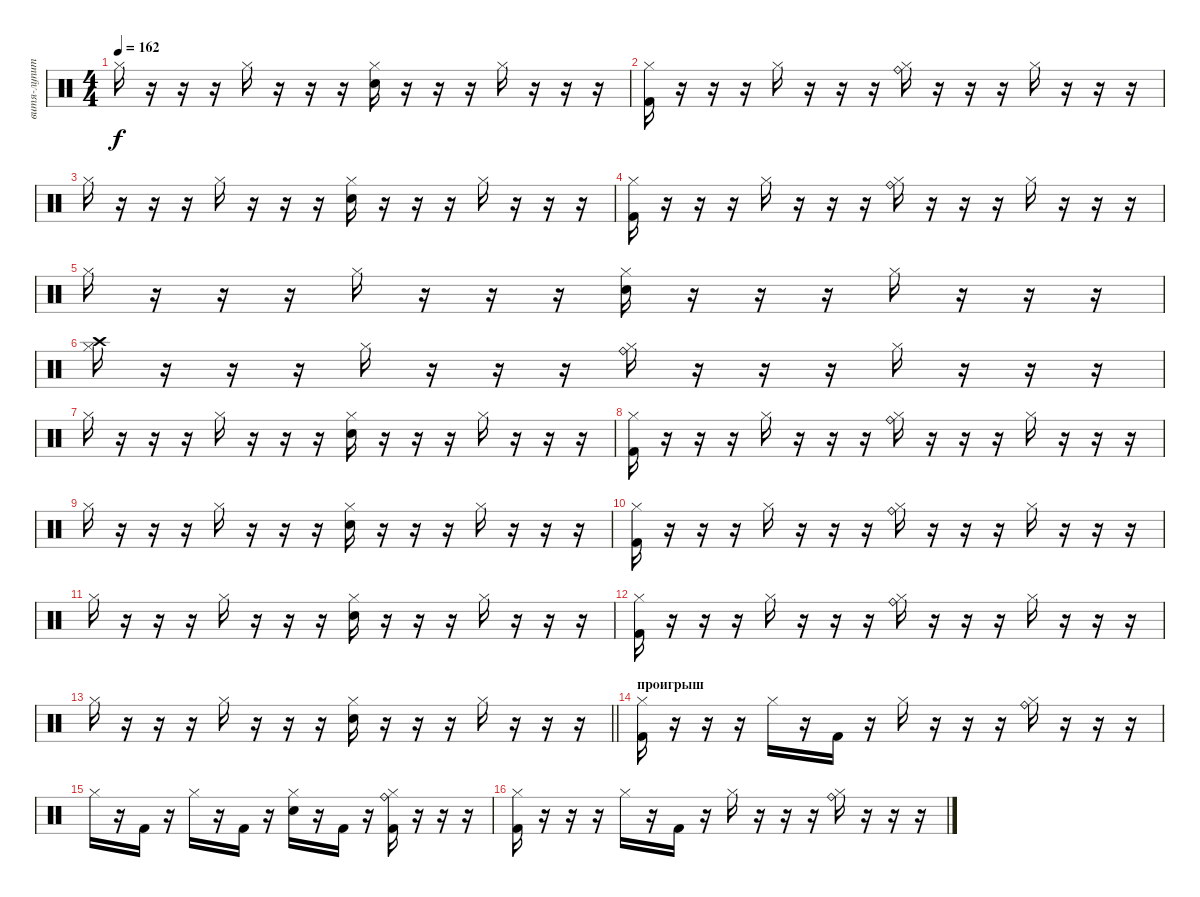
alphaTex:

\track ("витя-лупит" "витя-лупит") {instrument percussion}
\staff {score}
\articulation defaults
\ts (4 4)
\tempo 162
\clef neutral
\ks c "Hi-Hat (closed)".16{dy f}
r.16 r.16 r.16 "Hi-Hat (closed)".16 r.16 r.16 r.16 ("Snare (hit) 2" "Hi-Hat (closed)").16 r.16 r.16 r.16 "Hi-Hat (closed)".16 r.16 r.16 r.16 |
("Kick (hit) 2" "Hi-Hat (closed)").16 r.16 r.16 r.16 "Hi-Hat (closed)".16 r.16 r.16 r.16 ("Ride (bell)" "Hi-Hat (closed)").16 r.16 r.16 r.16 "Hi-Hat (closed)".16 r.16 r.16 r.16 |
"Hi-Hat (closed)".16 r.16 r.16 r.16 "Hi-Hat (closed)".16 r.16 r.16 r.16 ("Snare (hit) 2" "Hi-Hat (closed)").16 r.16 r.16 r.16 "Hi-Hat (closed)".16 r.16 r.16 r.16 |
("Kick (hit) 2" "Hi-Hat (closed)").16 r.16 r.16 r.16 "Hi-Hat (closed)".16 r.16 r.16 r.16 ("Ride (bell)" "Hi-Hat (closed)").16 r.16 r.16 r.16 "Hi-Hat (closed)".16 r.16 r.16 r.16 |
"Hi-Hat (closed)".16 r.16 r.16 r.16 "Hi-Hat (closed)".16 r.16 r.16 r.16 ("Snare (hit) 2" "Hi-Hat (closed)").16 r.16 r.16 r.16 "Hi-Hat (closed)".16 r.16 r.16 r.16 |
("Crash high (hit)" "Hi-Hat (closed)").16 r.16 r.16 r.16 "Hi-Hat (closed)".16 r.16 r.16 r.16 ("Ride (bell)" "Hi-Hat (closed)").16 r.16 r.16 r.16 "Hi-Hat (closed)".16 r.16 r.16 r.16 |
"Hi-Hat (closed)".16 r.16 r.16 r.16 "Hi-Hat (closed)".16 r.16 r.16 r.16 ("Snare (hit) 2" "Hi-Hat (closed)").16 r.16 r.16 r.16 "Hi-Hat (closed)".16 r.16 r.16 r.16 |
("Kick (hit) 2" "Hi-Hat (closed)").16 r.16 r.16 r.16 "Hi-Hat (closed)".16 r.16 r.16 r.16 ("Ride (bell)" "Hi-Hat (closed)").16 r.16 r.16 r.16 "Hi-Hat (closed)".16 r.16 r.16 r.16 |
"Hi-Hat (closed)".16 r.16 r.16 r.16 "Hi-Hat (closed)".16 r.16 r.16 r.16 ("Snare (hit) 2" "Hi-Hat (closed)").16 r.16 r.16 r.16 "Hi-Hat (closed)".16 r.16 r.16 r.16 |
("Kick (hit) 2" "Hi-Hat (closed)").16 r.16 r.16 r.16 "Hi-Hat (closed)".16 r.16 r.16 r.16 ("Ride (bell)" "Hi-Hat (closed)").16 r.16 r.16 r.16 "Hi-Hat (closed)".16 r.16 r.16 r.16 |
"Hi-Hat (closed)".16 r.16 r.16 r.16 "Hi-Hat (closed)".16 r.16 r.16 r.16 ("Snare (hit) 2" "Hi-Hat (closed)").16 r.16 r.16 r.16 "Hi-Hat (closed)".16 r.16 r.16 r.16 |
("Kick (hit) 2" "Hi-Hat (closed)").16 r.16 r.16 r.16 "Hi-Hat (closed)".16 r.16 r.16 r.16 ("Ride (bell)" "Hi-Hat (closed)").16 r.16 r.16 r.16 "Hi-Hat (closed)".16 r.16 r.16 r.16 |
\barLineRight lightlight "Hi-Hat (closed)".16
r.16 r.16 r.16 "Hi-Hat (closed)".16 r.16 r.16 r.16 ("Snare (hit) 2" "Hi-Hat (closed)").16 r.16 r.16 r.16 "Hi-Hat (closed)".16 r.16 r.16 r.16 |
\section ("" "проигрыш")
("Kick (hit) 2" "Hi-Hat (closed)").16 r.16 r.16 r.16 "Hi-Hat (closed)".16 r.16 "Kick (hit) 2".16 r.16 "Hi-Hat (closed)".16 r.16 r.16 r.16 ("Ride (bell)" "Hi-Hat (closed)").16 r.16 r.16 r.16 |
"Hi-Hat (closed)".16 r.16 "Kick (hit) 2".16 r.16 "Hi-Hat (closed)".16 r.16 "Kick (hit) 2".16 r.16 ("Snare (hit) 2" "Hi-Hat (closed)").16 r.16 "Kick (hit) 2".16 r.16 ("Kick (hit) 2" "Ride (bell)" "Hi-Hat (closed)").16 r.16 r.16 r.16 |
("Kick (hit) 2" "Hi-Hat (closed)").16 r.16 r.16 r.16 "Hi-Hat (closed)".16 r.16 "Kick (hit) 2".16 r.16 "Hi-Hat (closed)".16 r.16 r.16 r.16 ("Ride (bell)" "Hi-Hat (closed)").16 r.16 r.16 r.16
